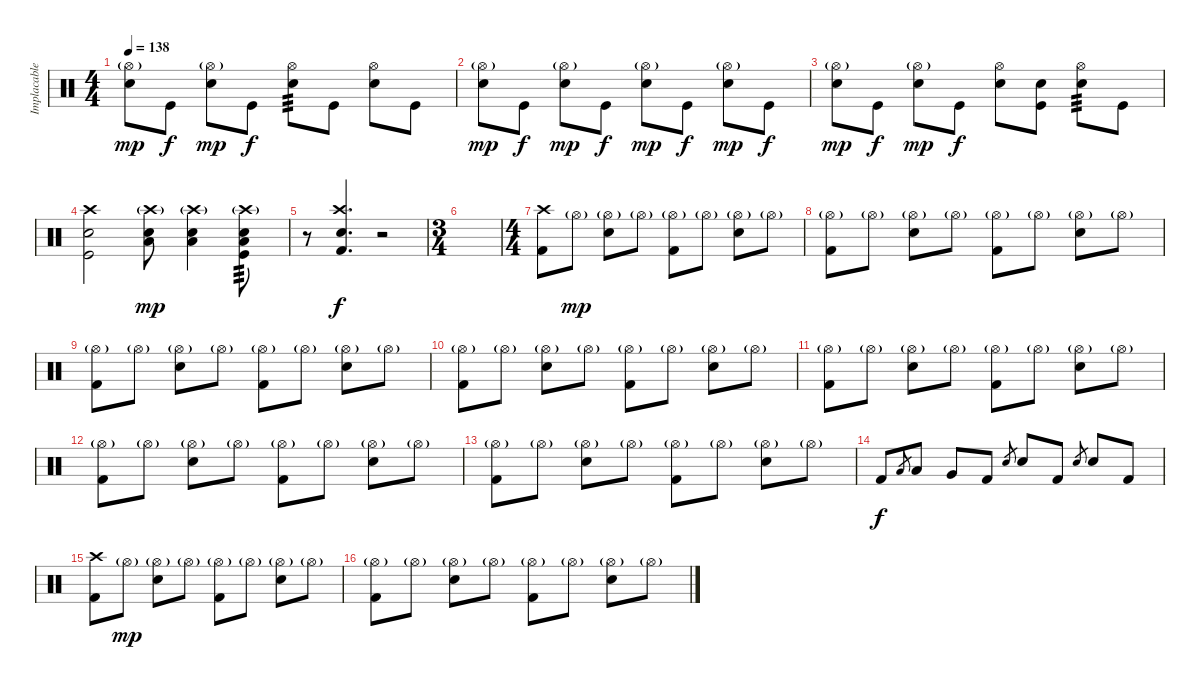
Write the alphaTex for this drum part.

\track ("Implacable Gonzalez" "Implacable") {instrument percussion}
\staff {score}
\articulation defaults
\ts (4 4)
\tempo 138
\clef neutral
\ks c
("Hi-Hat (open)"{g} "Snare (hit) 2").8{dy mp} "Kick (hit)".8{dy f} ("Hi-Hat (open)"{g} "Snare (hit) 2").8{dy mp} "Kick (hit)".8{dy f} ("Hi-Hat (open)" "Snare (hit) 2").8{tp 3} "Kick (hit)".8 ("Hi-Hat (open)" "Snare (hit) 2").8 "Kick (hit)".8 |
("Hi-Hat (open)"{g} "Snare (hit) 2").8{dy mp} "Kick (hit)".8{dy f} ("Hi-Hat (open)"{g} "Snare (hit) 2").8{dy mp} "Kick (hit)".8{dy f} ("Hi-Hat (open)"{g} "Snare (hit) 2").8{dy mp} "Kick (hit)".8{dy f} ("Hi-Hat (open)"{g} "Snare (hit) 2").8{dy mp} "Kick (hit)".8{dy f} |
("Hi-Hat (open)"{g} "Snare (hit) 2").8{dy mp} "Kick (hit)".8{dy f} ("Hi-Hat (open)"{g} "Snare (hit) 2").8{dy mp} "Kick (hit)".8{dy f} ("Hi-Hat (open)" "Snare (hit) 2").8 ("Snare (hit) 2" "Kick (hit)").8 ("Hi-Hat (open)" "Snare (hit) 2").8{tp 3} "Kick (hit)".8 |
("Crash high (hit)" "Snare (hit) 2" "Kick (hit)").2 ("Crash high (hit)"{g} "Snare (hit) 2" "Low Floor Tom (hit)").8{dy mp} ("Crash high (hit)"{g} "Snare (hit) 2" "Low Floor Tom (hit)").4 ("Crash high (hit)"{g} "Snare (hit) 2" "Low Tom (hit)" "Kick (hit)").8{tp 3} |
r.8 ("Crash high (hit)" "Snare (hit) 2" "Kick (hit) 2").4{d dy f} r.2 |
\ts (3 4)
|
\ts (4 4)
("Crash high (hit)" "Kick (hit) 2").8 "Hi-Hat (open)"{g}.8{dy mp} ("Hi-Hat (open)"{g} "Snare (hit) 2").8 "Hi-Hat (open)"{g}.8 ("Hi-Hat (open)"{g} "Kick (hit) 2").8 "Hi-Hat (open)"{g}.8 ("Hi-Hat (open)"{g} "Snare (hit) 2").8 "Hi-Hat (open)"{g}.8 |
("Hi-Hat (open)"{g} "Kick (hit) 2").8 "Hi-Hat (open)"{g}.8 ("Hi-Hat (open)"{g} "Snare (hit) 2").8 "Hi-Hat (open)"{g}.8 ("Hi-Hat (open)"{g} "Kick (hit) 2").8 "Hi-Hat (open)"{g}.8 ("Hi-Hat (open)"{g} "Snare (hit) 2").8 "Hi-Hat (open)"{g}.8 |
("Hi-Hat (open)"{g} "Kick (hit) 2").8 "Hi-Hat (open)"{g}.8 ("Hi-Hat (open)"{g} "Snare (hit) 2").8 "Hi-Hat (open)"{g}.8 ("Hi-Hat (open)"{g} "Kick (hit) 2").8 "Hi-Hat (open)"{g}.8 ("Hi-Hat (open)"{g} "Snare (hit) 2").8 "Hi-Hat (open)"{g}.8 |
("Hi-Hat (open)"{g} "Kick (hit) 2").8 "Hi-Hat (open)"{g}.8 ("Hi-Hat (open)"{g} "Snare (hit) 2").8 "Hi-Hat (open)"{g}.8 ("Hi-Hat (open)"{g} "Kick (hit) 2").8 "Hi-Hat (open)"{g}.8 ("Hi-Hat (open)"{g} "Snare (hit) 2").8 "Hi-Hat (open)"{g}.8 |
("Hi-Hat (open)"{g} "Kick (hit) 2").8 "Hi-Hat (open)"{g}.8 ("Hi-Hat (open)"{g} "Snare (hit) 2").8 "Hi-Hat (open)"{g}.8 ("Hi-Hat (open)"{g} "Kick (hit) 2").8 "Hi-Hat (open)"{g}.8 ("Hi-Hat (open)"{g} "Snare (hit) 2").8 "Hi-Hat (open)"{g}.8 |
("Hi-Hat (open)"{g} "Kick (hit) 2").8 "Hi-Hat (open)"{g}.8 ("Hi-Hat (open)"{g} "Snare (hit) 2").8 "Hi-Hat (open)"{g}.8 ("Hi-Hat (open)"{g} "Kick (hit) 2").8 "Hi-Hat (open)"{g}.8 ("Hi-Hat (open)"{g} "Snare (hit) 2").8 "Hi-Hat (open)"{g}.8 |
("Hi-Hat (open)"{g} "Kick (hit) 2").8 "Hi-Hat (open)"{g}.8 ("Hi-Hat (open)"{g} "Snare (hit) 2").8 "Hi-Hat (open)"{g}.8 ("Hi-Hat (open)"{g} "Kick (hit) 2").8 "Hi-Hat (open)"{g}.8 ("Hi-Hat (open)"{g} "Snare (hit) 2").8 "Hi-Hat (open)"{g}.8 |
"Kick (hit) 2".8{dy f} "Low Tom (hit)".8{gr} "Low Tom (hit)".8 "Very Low Tom (hit)".8 "Kick (hit) 2".8 "Snare (hit) 2".8{gr} "Snare (hit) 2".8 "Kick (hit) 2".8 "Snare (hit) 2".8{gr} "Snare (hit) 2".8 "Kick (hit) 2".8 |
("Crash high (hit)" "Kick (hit) 2").8 "Hi-Hat (open)"{g}.8{dy mp} ("Hi-Hat (open)"{g} "Snare (hit) 2").8 "Hi-Hat (open)"{g}.8 ("Hi-Hat (open)"{g} "Kick (hit) 2").8 "Hi-Hat (open)"{g}.8 ("Hi-Hat (open)"{g} "Snare (hit) 2").8 "Hi-Hat (open)"{g}.8 |
("Hi-Hat (open)"{g} "Kick (hit) 2").8 "Hi-Hat (open)"{g}.8 ("Hi-Hat (open)"{g} "Snare (hit) 2").8 "Hi-Hat (open)"{g}.8 ("Hi-Hat (open)"{g} "Kick (hit) 2").8 "Hi-Hat (open)"{g}.8 ("Hi-Hat (open)"{g} "Snare (hit) 2").8 "Hi-Hat (open)"{g}.8
